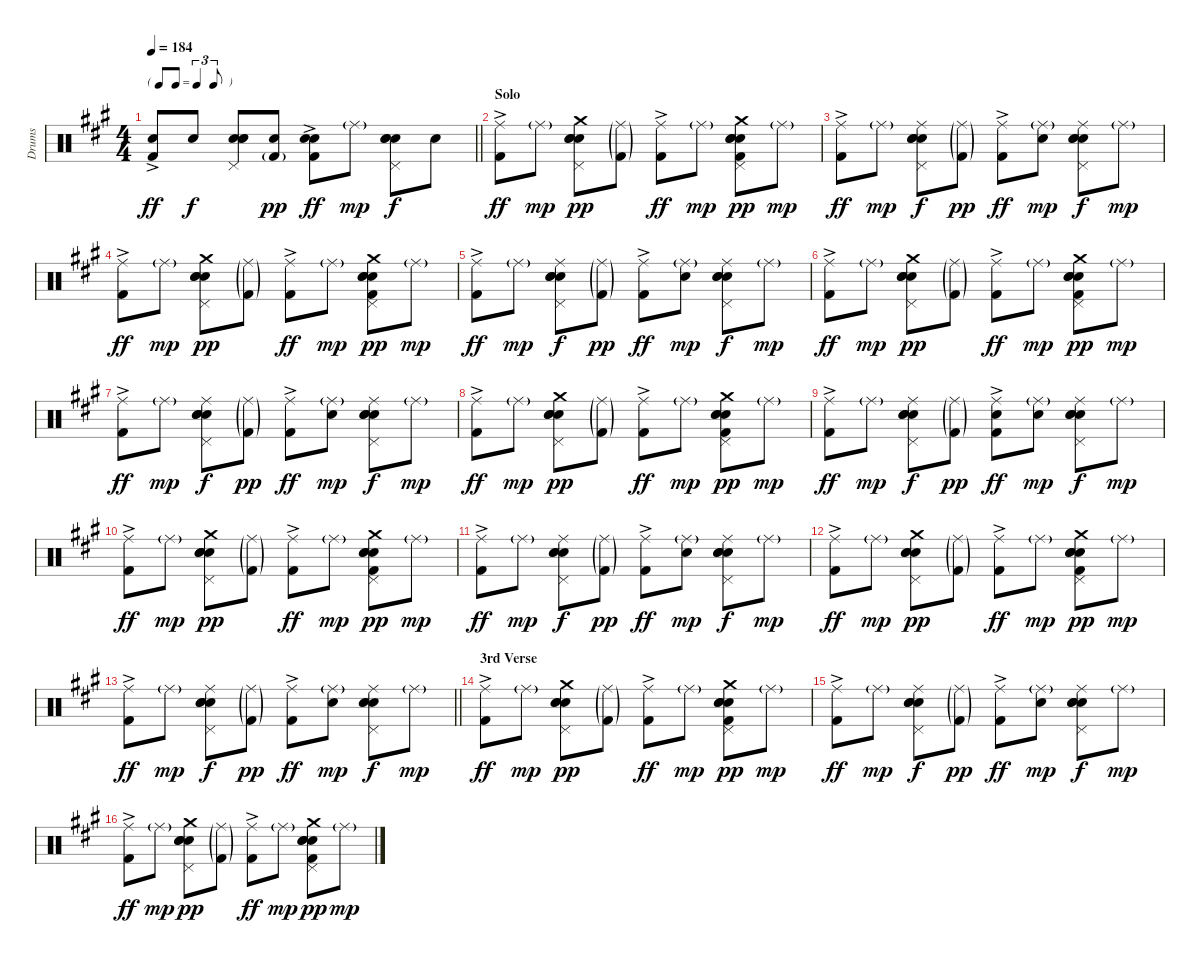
\track ("Drums" "Drums") {instrument percussion}
\staff {score}
\articulation defaults
\ts (4 4)
\tf triplet8th
\tempo 184
\clef neutral
\barLineRight lightlight
\ks a
("Snare (hit) 2" "Kick (hit) 2"{ac}).8{dy ff} "Snare (hit) 2".8{dy f} ("Pedal Hi-Hat (hit)" "Hand Clap (hit)" "Electric Snare (hit)" "Snare (hit) 2").8 ("Snare (hit) 2" "Kick (hit) 2"{g}).8{dy pp} ("Electric Snare (hit)"{ac} "Snare (hit) 2" "Kick (hit) 2"{ac}).8{dy ff} "Ride (middle)"{g}.8{dy mp} ("Pedal Hi-Hat (hit)" "Hand Clap (hit)" "Electric Snare (hit)" "Snare (hit) 2").8{dy f} "Snare (hit) 2".8 |
\section ("" "Solo")
("Ride (middle)" "Kick (hit) 2"{ac}).8{dy ff} "Ride (middle)"{g}.8{dy mp} ("Hand Clap (hit)" "Pedal Hi-Hat (hit)" "Crash medium (hit)" "Electric Snare (hit)" "Snare (hit) 2").8{dy pp} ("Ride (middle)"{g} "Kick (hit) 2"{g}).8 ("Ride (middle)" "Kick (hit) 2"{ac}).8{dy ff} "Ride (middle)"{g}.8{dy mp} ("Hand Clap (hit)" "Pedal Hi-Hat (hit)" "Crash medium (hit)" "Electric Snare (hit)" "Snare (hit) 2" "Kick (hit) 2").8{dy pp} "Ride (middle)"{g}.8{dy mp} |
("Ride (middle)" "Kick (hit) 2"{ac}).8{dy ff} "Ride (middle)"{g}.8{dy mp} ("Ride (middle)" "Pedal Hi-Hat (hit)" "Hand Clap (hit)" "Electric Snare (hit)" "Snare (hit) 2").8{dy f} ("Ride (middle)"{g} "Kick (hit) 2"{g}).8{dy pp} ("Ride (middle)" "Kick (hit) 2"{ac}).8{dy ff} ("Ride (middle)"{g} "Snare (hit) 2").8{dy mp} ("Ride (middle)" "Pedal Hi-Hat (hit)" "Hand Clap (hit)" "Electric Snare (hit)" "Snare (hit) 2").8{dy f} "Ride (middle)"{g}.8{dy mp} |
("Ride (middle)" "Kick (hit) 2"{ac}).8{dy ff} "Ride (middle)"{g}.8{dy mp} ("Hand Clap (hit)" "Pedal Hi-Hat (hit)" "Crash medium (hit)" "Electric Snare (hit)" "Snare (hit) 2").8{dy pp} ("Ride (middle)"{g} "Kick (hit) 2"{g}).8 ("Ride (middle)" "Kick (hit) 2"{ac}).8{dy ff} "Ride (middle)"{g}.8{dy mp} ("Hand Clap (hit)" "Pedal Hi-Hat (hit)" "Crash medium (hit)" "Electric Snare (hit)" "Snare (hit) 2" "Kick (hit) 2").8{dy pp} "Ride (middle)"{g}.8{dy mp} |
("Ride (middle)" "Kick (hit) 2"{ac}).8{dy ff} "Ride (middle)"{g}.8{dy mp} ("Ride (middle)" "Pedal Hi-Hat (hit)" "Hand Clap (hit)" "Electric Snare (hit)" "Snare (hit) 2").8{dy f} ("Ride (middle)"{g} "Kick (hit) 2"{g}).8{dy pp} ("Ride (middle)" "Kick (hit) 2"{ac}).8{dy ff} ("Ride (middle)"{g} "Snare (hit) 2").8{dy mp} ("Ride (middle)" "Pedal Hi-Hat (hit)" "Hand Clap (hit)" "Electric Snare (hit)" "Snare (hit) 2").8{dy f} "Ride (middle)"{g}.8{dy mp} |
("Ride (middle)" "Kick (hit) 2"{ac}).8{dy ff} "Ride (middle)"{g}.8{dy mp} ("Hand Clap (hit)" "Pedal Hi-Hat (hit)" "Crash medium (hit)" "Electric Snare (hit)" "Snare (hit) 2").8{dy pp} ("Ride (middle)"{g} "Kick (hit) 2"{g}).8 ("Ride (middle)" "Kick (hit) 2"{ac}).8{dy ff} "Ride (middle)"{g}.8{dy mp} ("Hand Clap (hit)" "Pedal Hi-Hat (hit)" "Crash medium (hit)" "Electric Snare (hit)" "Snare (hit) 2" "Kick (hit) 2").8{dy pp} "Ride (middle)"{g}.8{dy mp} |
("Ride (middle)" "Kick (hit) 2"{ac}).8{dy ff} "Ride (middle)"{g}.8{dy mp} ("Ride (middle)" "Pedal Hi-Hat (hit)" "Hand Clap (hit)" "Electric Snare (hit)" "Snare (hit) 2").8{dy f} ("Ride (middle)"{g} "Kick (hit) 2"{g}).8{dy pp} ("Ride (middle)" "Kick (hit) 2"{ac}).8{dy ff} ("Ride (middle)"{g} "Snare (hit) 2").8{dy mp} ("Ride (middle)" "Pedal Hi-Hat (hit)" "Hand Clap (hit)" "Electric Snare (hit)" "Snare (hit) 2").8{dy f} "Ride (middle)"{g}.8{dy mp} |
("Ride (middle)" "Kick (hit) 2"{ac}).8{dy ff} "Ride (middle)"{g}.8{dy mp} ("Hand Clap (hit)" "Pedal Hi-Hat (hit)" "Crash medium (hit)" "Electric Snare (hit)" "Snare (hit) 2").8{dy pp} ("Ride (middle)"{g} "Kick (hit) 2"{g}).8 ("Ride (middle)" "Kick (hit) 2"{ac}).8{dy ff} "Ride (middle)"{g}.8{dy mp} ("Hand Clap (hit)" "Pedal Hi-Hat (hit)" "Crash medium (hit)" "Electric Snare (hit)" "Snare (hit) 2" "Kick (hit) 2").8{dy pp} "Ride (middle)"{g}.8{dy mp} |
("Ride (middle)" "Kick (hit) 2"{ac}).8{dy ff} "Ride (middle)"{g}.8{dy mp} ("Ride (middle)" "Pedal Hi-Hat (hit)" "Hand Clap (hit)" "Electric Snare (hit)" "Snare (hit) 2").8{dy f} ("Ride (middle)"{g} "Kick (hit) 2"{g}).8{dy pp} ("Ride (middle)" "Snare (hit) 2" "Kick (hit) 2"{ac}).8{dy ff} ("Ride (middle)"{g} "Snare (hit) 2").8{dy mp} ("Ride (middle)" "Pedal Hi-Hat (hit)" "Hand Clap (hit)" "Electric Snare (hit)" "Snare (hit) 2").8{dy f} "Ride (middle)"{g}.8{dy mp} |
("Ride (middle)" "Kick (hit) 2"{ac}).8{dy ff} "Ride (middle)"{g}.8{dy mp} ("Hand Clap (hit)" "Pedal Hi-Hat (hit)" "Crash medium (hit)" "Electric Snare (hit)" "Snare (hit) 2").8{dy pp} ("Ride (middle)"{g} "Kick (hit) 2"{g}).8 ("Ride (middle)" "Kick (hit) 2"{ac}).8{dy ff} "Ride (middle)"{g}.8{dy mp} ("Hand Clap (hit)" "Pedal Hi-Hat (hit)" "Crash medium (hit)" "Electric Snare (hit)" "Snare (hit) 2" "Kick (hit) 2").8{dy pp} "Ride (middle)"{g}.8{dy mp} |
("Ride (middle)" "Kick (hit) 2"{ac}).8{dy ff} "Ride (middle)"{g}.8{dy mp} ("Ride (middle)" "Pedal Hi-Hat (hit)" "Hand Clap (hit)" "Electric Snare (hit)" "Snare (hit) 2").8{dy f} ("Ride (middle)"{g} "Kick (hit) 2"{g}).8{dy pp} ("Ride (middle)" "Kick (hit) 2"{ac}).8{dy ff} ("Ride (middle)"{g} "Snare (hit) 2").8{dy mp} ("Ride (middle)" "Pedal Hi-Hat (hit)" "Hand Clap (hit)" "Electric Snare (hit)" "Snare (hit) 2").8{dy f} "Ride (middle)"{g}.8{dy mp} |
("Ride (middle)" "Kick (hit) 2"{ac}).8{dy ff} "Ride (middle)"{g}.8{dy mp} ("Hand Clap (hit)" "Pedal Hi-Hat (hit)" "Crash medium (hit)" "Electric Snare (hit)" "Snare (hit) 2").8{dy pp} ("Ride (middle)"{g} "Kick (hit) 2"{g}).8 ("Ride (middle)" "Kick (hit) 2"{ac}).8{dy ff} "Ride (middle)"{g}.8{dy mp} ("Hand Clap (hit)" "Pedal Hi-Hat (hit)" "Crash medium (hit)" "Electric Snare (hit)" "Snare (hit) 2" "Kick (hit) 2").8{dy pp} "Ride (middle)"{g}.8{dy mp} |
\barLineRight lightlight
("Ride (middle)" "Kick (hit) 2"{ac}).8{dy ff} "Ride (middle)"{g}.8{dy mp} ("Ride (middle)" "Pedal Hi-Hat (hit)" "Hand Clap (hit)" "Electric Snare (hit)" "Snare (hit) 2").8{dy f} ("Ride (middle)"{g} "Kick (hit) 2"{g}).8{dy pp} ("Ride (middle)" "Kick (hit) 2"{ac}).8{dy ff} ("Ride (middle)"{g} "Snare (hit) 2").8{dy mp} ("Ride (middle)" "Pedal Hi-Hat (hit)" "Hand Clap (hit)" "Electric Snare (hit)" "Snare (hit) 2").8{dy f} "Ride (middle)"{g}.8{dy mp} |
\section ("" "3rd Verse")
("Ride (middle)" "Kick (hit) 2"{ac}).8{dy ff} "Ride (middle)"{g}.8{dy mp} ("Hand Clap (hit)" "Pedal Hi-Hat (hit)" "Crash medium (hit)" "Electric Snare (hit)" "Snare (hit) 2").8{dy pp} ("Ride (middle)"{g} "Kick (hit) 2"{g}).8 ("Ride (middle)" "Kick (hit) 2"{ac}).8{dy ff} "Ride (middle)"{g}.8{dy mp} ("Hand Clap (hit)" "Pedal Hi-Hat (hit)" "Crash medium (hit)" "Electric Snare (hit)" "Snare (hit) 2" "Kick (hit) 2").8{dy pp} "Ride (middle)"{g}.8{dy mp} |
("Ride (middle)" "Kick (hit) 2"{ac}).8{dy ff} "Ride (middle)"{g}.8{dy mp} ("Ride (middle)" "Pedal Hi-Hat (hit)" "Hand Clap (hit)" "Electric Snare (hit)" "Snare (hit) 2").8{dy f} ("Ride (middle)"{g} "Kick (hit) 2"{g}).8{dy pp} ("Ride (middle)" "Kick (hit) 2"{ac}).8{dy ff} ("Ride (middle)"{g} "Snare (hit) 2").8{dy mp} ("Ride (middle)" "Pedal Hi-Hat (hit)" "Hand Clap (hit)" "Electric Snare (hit)" "Snare (hit) 2").8{dy f} "Ride (middle)"{g}.8{dy mp} |
("Ride (middle)" "Kick (hit) 2"{ac}).8{dy ff} "Ride (middle)"{g}.8{dy mp} ("Hand Clap (hit)" "Pedal Hi-Hat (hit)" "Crash medium (hit)" "Electric Snare (hit)" "Snare (hit) 2").8{dy pp} ("Ride (middle)"{g} "Kick (hit) 2"{g}).8 ("Ride (middle)" "Kick (hit) 2"{ac}).8{dy ff} "Ride (middle)"{g}.8{dy mp} ("Hand Clap (hit)" "Pedal Hi-Hat (hit)" "Crash medium (hit)" "Electric Snare (hit)" "Snare (hit) 2" "Kick (hit) 2").8{dy pp} "Ride (middle)"{g}.8{dy mp}
